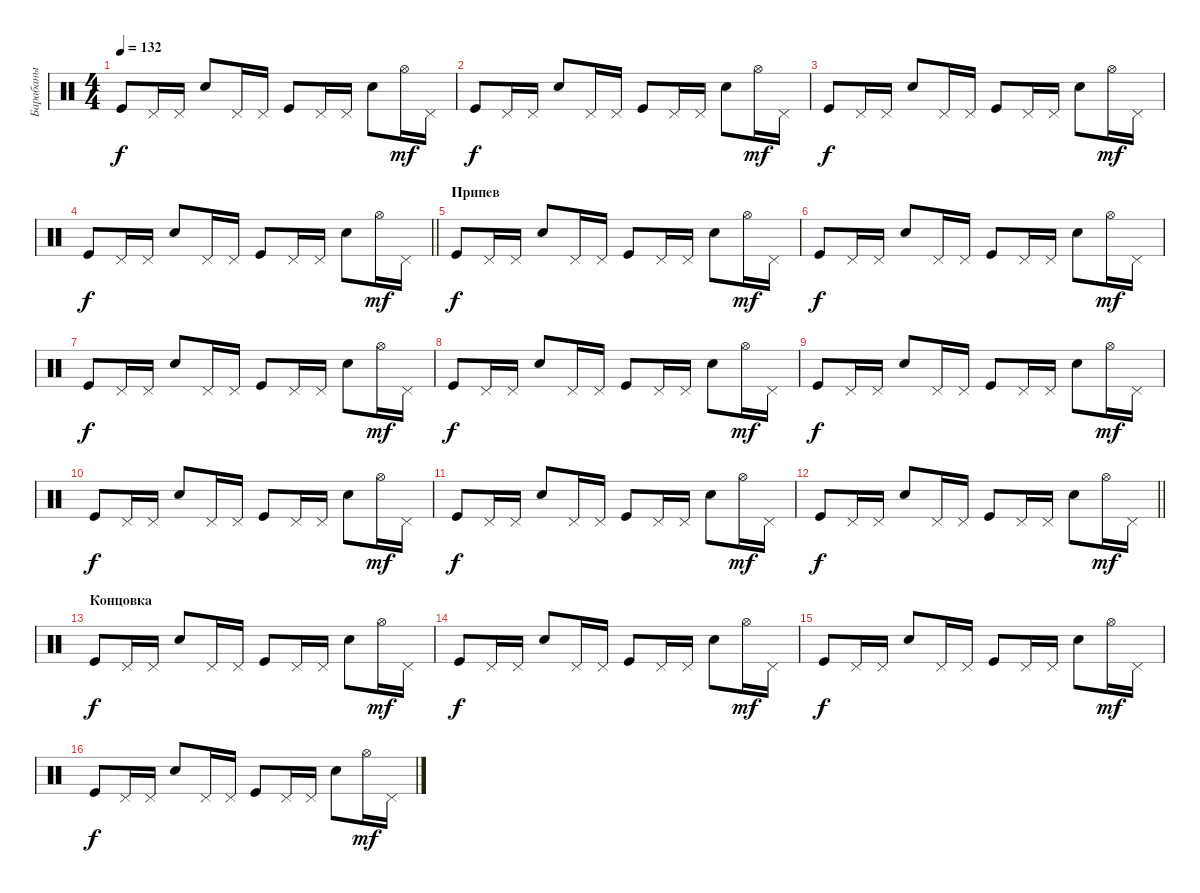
\track ("Барабаны" "Барабаны") {instrument percussion}
\staff {score}
\articulation defaults
\ts (4 4)
\tempo 132
\clef neutral
\ks c "Kick (hit)".8{dy f} "Pedal Hi-Hat (hit)".16 "Pedal Hi-Hat (hit)".16 "Snare (hit) 2".8 "Pedal Hi-Hat (hit)".16 "Pedal Hi-Hat (hit)".16 "Kick (hit)".8 "Pedal Hi-Hat (hit)".16 "Pedal Hi-Hat (hit)".16 "Snare (hit) 2".8 "Hi-Hat (open)".16{dy mf} "Pedal Hi-Hat (hit)".16
|
"Kick (hit)".8{dy f} "Pedal Hi-Hat (hit)".16 "Pedal Hi-Hat (hit)".16 "Snare (hit) 2".8 "Pedal Hi-Hat (hit)".16 "Pedal Hi-Hat (hit)".16 "Kick (hit)".8 "Pedal Hi-Hat (hit)".16 "Pedal Hi-Hat (hit)".16 "Snare (hit) 2".8 "Hi-Hat (open)".16{dy mf} "Pedal Hi-Hat (hit)".16 |
"Kick (hit)".8{dy f} "Pedal Hi-Hat (hit)".16 "Pedal Hi-Hat (hit)".16 "Snare (hit) 2".8 "Pedal Hi-Hat (hit)".16 "Pedal Hi-Hat (hit)".16 "Kick (hit)".8 "Pedal Hi-Hat (hit)".16 "Pedal Hi-Hat (hit)".16 "Snare (hit) 2".8 "Hi-Hat (open)".16{dy mf} "Pedal Hi-Hat (hit)".16 |
\barLineRight lightlight "Kick (hit)".8{dy f} "Pedal Hi-Hat (hit)".16 "Pedal Hi-Hat (hit)".16 "Snare (hit) 2".8 "Pedal Hi-Hat (hit)".16 "Pedal Hi-Hat (hit)".16 "Kick (hit)".8 "Pedal Hi-Hat (hit)".16 "Pedal Hi-Hat (hit)".16 "Snare (hit) 2".8 "Hi-Hat (open)".16{dy mf} "Pedal Hi-Hat (hit)".16
|
\section ("" "Припев")
"Kick (hit)".8{dy f} "Pedal Hi-Hat (hit)".16 "Pedal Hi-Hat (hit)".16 "Snare (hit) 2".8 "Pedal Hi-Hat (hit)".16 "Pedal Hi-Hat (hit)".16 "Kick (hit)".8 "Pedal Hi-Hat (hit)".16 "Pedal Hi-Hat (hit)".16 "Snare (hit) 2".8 "Hi-Hat (open)".16{dy mf} "Pedal Hi-Hat (hit)".16 |
"Kick (hit)".8{dy f} "Pedal Hi-Hat (hit)".16 "Pedal Hi-Hat (hit)".16 "Snare (hit) 2".8 "Pedal Hi-Hat (hit)".16 "Pedal Hi-Hat (hit)".16 "Kick (hit)".8 "Pedal Hi-Hat (hit)".16 "Pedal Hi-Hat (hit)".16 "Snare (hit) 2".8 "Hi-Hat (open)".16{dy mf} "Pedal Hi-Hat (hit)".16 |
"Kick (hit)".8{dy f} "Pedal Hi-Hat (hit)".16 "Pedal Hi-Hat (hit)".16 "Snare (hit) 2".8 "Pedal Hi-Hat (hit)".16 "Pedal Hi-Hat (hit)".16 "Kick (hit)".8 "Pedal Hi-Hat (hit)".16 "Pedal Hi-Hat (hit)".16 "Snare (hit) 2".8 "Hi-Hat (open)".16{dy mf} "Pedal Hi-Hat (hit)".16 |
"Kick (hit)".8{dy f} "Pedal Hi-Hat (hit)".16 "Pedal Hi-Hat (hit)".16 "Snare (hit) 2".8 "Pedal Hi-Hat (hit)".16 "Pedal Hi-Hat (hit)".16 "Kick (hit)".8 "Pedal Hi-Hat (hit)".16 "Pedal Hi-Hat (hit)".16 "Snare (hit) 2".8 "Hi-Hat (open)".16{dy mf} "Pedal Hi-Hat (hit)".16 |
"Kick (hit)".8{dy f} "Pedal Hi-Hat (hit)".16 "Pedal Hi-Hat (hit)".16 "Snare (hit) 2".8 "Pedal Hi-Hat (hit)".16 "Pedal Hi-Hat (hit)".16 "Kick (hit)".8 "Pedal Hi-Hat (hit)".16 "Pedal Hi-Hat (hit)".16 "Snare (hit) 2".8 "Hi-Hat (open)".16{dy mf} "Pedal Hi-Hat (hit)".16 |
"Kick (hit)".8{dy f} "Pedal Hi-Hat (hit)".16 "Pedal Hi-Hat (hit)".16 "Snare (hit) 2".8 "Pedal Hi-Hat (hit)".16 "Pedal Hi-Hat (hit)".16 "Kick (hit)".8 "Pedal Hi-Hat (hit)".16 "Pedal Hi-Hat (hit)".16 "Snare (hit) 2".8 "Hi-Hat (open)".16{dy mf} "Pedal Hi-Hat (hit)".16 |
"Kick (hit)".8{dy f} "Pedal Hi-Hat (hit)".16 "Pedal Hi-Hat (hit)".16 "Snare (hit) 2".8 "Pedal Hi-Hat (hit)".16 "Pedal Hi-Hat (hit)".16 "Kick (hit)".8 "Pedal Hi-Hat (hit)".16 "Pedal Hi-Hat (hit)".16 "Snare (hit) 2".8 "Hi-Hat (open)".16{dy mf} "Pedal Hi-Hat (hit)".16 |
\barLineRight lightlight "Kick (hit)".8{dy f} "Pedal Hi-Hat (hit)".16 "Pedal Hi-Hat (hit)".16 "Snare (hit) 2".8 "Pedal Hi-Hat (hit)".16 "Pedal Hi-Hat (hit)".16 "Kick (hit)".8 "Pedal Hi-Hat (hit)".16 "Pedal Hi-Hat (hit)".16 "Snare (hit) 2".8 "Hi-Hat (open)".16{dy mf} "Pedal Hi-Hat (hit)".16
|
\section ("" "Концовка")
"Kick (hit)".8{dy f} "Pedal Hi-Hat (hit)".16 "Pedal Hi-Hat (hit)".16 "Snare (hit) 2".8 "Pedal Hi-Hat (hit)".16 "Pedal Hi-Hat (hit)".16 "Kick (hit)".8 "Pedal Hi-Hat (hit)".16 "Pedal Hi-Hat (hit)".16 "Snare (hit) 2".8 "Hi-Hat (open)".16{dy mf} "Pedal Hi-Hat (hit)".16 |
"Kick (hit)".8{dy f} "Pedal Hi-Hat (hit)".16 "Pedal Hi-Hat (hit)".16 "Snare (hit) 2".8 "Pedal Hi-Hat (hit)".16 "Pedal Hi-Hat (hit)".16 "Kick (hit)".8 "Pedal Hi-Hat (hit)".16 "Pedal Hi-Hat (hit)".16 "Snare (hit) 2".8 "Hi-Hat (open)".16{dy mf} "Pedal Hi-Hat (hit)".16 |
"Kick (hit)".8{dy f} "Pedal Hi-Hat (hit)".16 "Pedal Hi-Hat (hit)".16 "Snare (hit) 2".8 "Pedal Hi-Hat (hit)".16 "Pedal Hi-Hat (hit)".16 "Kick (hit)".8 "Pedal Hi-Hat (hit)".16 "Pedal Hi-Hat (hit)".16 "Snare (hit) 2".8 "Hi-Hat (open)".16{dy mf} "Pedal Hi-Hat (hit)".16 |
"Kick (hit)".8{dy f} "Pedal Hi-Hat (hit)".16 "Pedal Hi-Hat (hit)".16 "Snare (hit) 2".8 "Pedal Hi-Hat (hit)".16 "Pedal Hi-Hat (hit)".16 "Kick (hit)".8 "Pedal Hi-Hat (hit)".16 "Pedal Hi-Hat (hit)".16 "Snare (hit) 2".8 "Hi-Hat (open)".16{dy mf} "Pedal Hi-Hat (hit)".16
